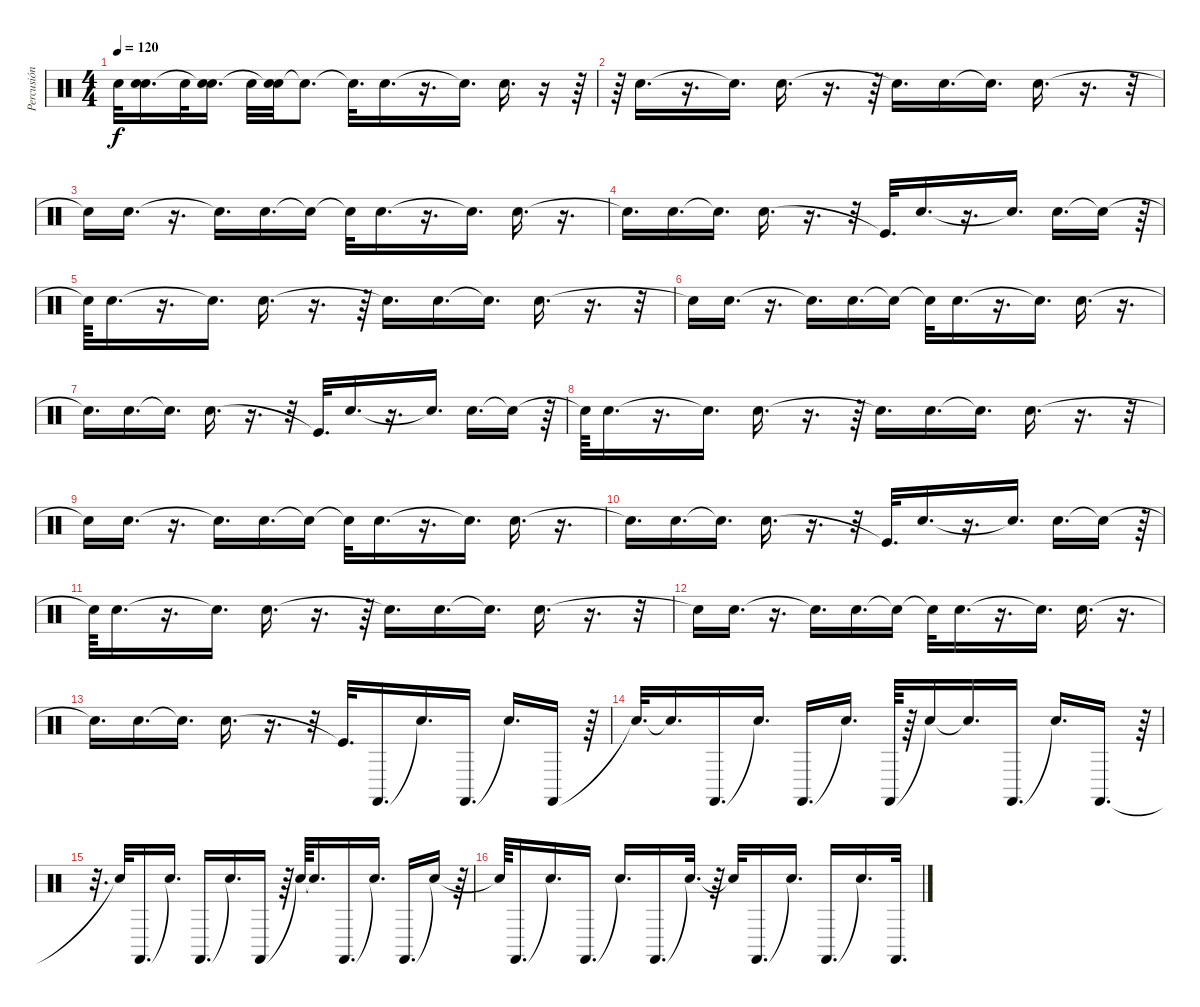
\track ("Percusión" "Percusión") {instrument percussion}
\staff {score}
\articulation defaults
\ts (4 4)
\tempo 120
\clef neutral
\ks c "Electric Snare (hit)".32{dy f}
("Electric Snare (hit)" "Snare (hit)"{t}).16{d} "Electric Snare (hit)".32 ("Electric Snare (hit)" "Snare (hit)"{t}).16{d} "Electric Snare (hit)".32 ("Electric Snare (hit)" "Snare (hit)"{t}).32 "Snare (hit)"{t}.8{d} "Snare (hit)"{t}.32{d} "Electric Snare (hit)".16{d} r.16{d} "Snare (hit)"{t}.16{d} "Electric Snare (hit)".16{d} r.16 r.64 |
r.64 "Electric Snare (hit)".16{d} r.16{d} "Snare (hit)"{t}.16{d} "Electric Snare (hit)".16{d} r.16{d} r.64 "Snare (hit)"{t}.16{d} "Electric Snare (hit)".16{d} "Snare (hit)"{t}.16{d} "Electric Snare (hit)".16{d} r.16{d} r.32 |
"Snare (hit)"{t}.16 "Electric Snare (hit)".16{d} r.16{d} "Snare (hit)"{t}.16{d} "Electric Snare (hit)".16{d} "Snare (hit)"{t}.16 "Snare (hit)"{t}.32 "Electric Snare (hit)".16{d} r.16{d} "Snare (hit)"{t}.16{d} "Electric Snare (hit)".16{d} r.16{d} |
"Snare (hit)"{t}.16{d} "Electric Snare (hit)".16{d} "Snare (hit)"{t}.16{d} "Electric Snare (hit)".16{d} r.16{d} r.32 "Kick (hit)"{t}.32{d} "Electric Snare (hit)".16{d} r.16{d} "Snare (hit)"{t}.16{d} "Electric Snare (hit)".16{d} "Snare (hit)"{t}.16 r.64 |
"Snare (hit)"{t}.64 "Electric Snare (hit)".16{d} r.16{d} "Snare (hit)"{t}.16{d} "Electric Snare (hit)".16{d} r.16{d} r.64 "Snare (hit)"{t}.16{d} "Electric Snare (hit)".16{d} "Snare (hit)"{t}.16{d} "Electric Snare (hit)".16{d} r.16{d} r.32 |
"Snare (hit)"{t}.16 "Electric Snare (hit)".16{d} r.16{d} "Snare (hit)"{t}.16{d} "Electric Snare (hit)".16{d} "Snare (hit)"{t}.16 "Snare (hit)"{t}.32 "Electric Snare (hit)".16{d} r.16{d} "Snare (hit)"{t}.16{d} "Electric Snare (hit)".16{d} r.16{d} |
"Snare (hit)"{t}.16{d} "Electric Snare (hit)".16{d} "Snare (hit)"{t}.16{d} "Electric Snare (hit)".16{d} r.16{d} r.32 "Kick (hit)"{t}.32{d} "Electric Snare (hit)".16{d} r.16{d} "Snare (hit)"{t}.16{d} "Electric Snare (hit)".16{d} "Snare (hit)"{t}.16 r.64 |
"Snare (hit)"{t}.64 "Electric Snare (hit)".16{d} r.16{d} "Snare (hit)"{t}.16{d} "Electric Snare (hit)".16{d} r.16{d} r.64 "Snare (hit)"{t}.16{d} "Electric Snare (hit)".16{d} "Snare (hit)"{t}.16{d} "Electric Snare (hit)".16{d} r.16{d} r.32 |
"Snare (hit)"{t}.16 "Electric Snare (hit)".16{d} r.16{d} "Snare (hit)"{t}.16{d} "Electric Snare (hit)".16{d} "Snare (hit)"{t}.16 "Snare (hit)"{t}.32 "Electric Snare (hit)".16{d} r.16{d} "Snare (hit)"{t}.16{d} "Electric Snare (hit)".16{d} r.16{d} |
"Snare (hit)"{t}.16{d} "Electric Snare (hit)".16{d} "Snare (hit)"{t}.16{d} "Electric Snare (hit)".16{d} r.16{d} r.32 "Kick (hit)"{t}.32{d} "Electric Snare (hit)".16{d} r.16{d} "Snare (hit)"{t}.16{d} "Electric Snare (hit)".16{d} "Snare (hit)"{t}.16 r.64 |
"Snare (hit)"{t}.64 "Electric Snare (hit)".16{d} r.16{d} "Snare (hit)"{t}.16{d} "Electric Snare (hit)".16{d} r.16{d} r.64 "Snare (hit)"{t}.16{d} "Electric Snare (hit)".16{d} "Snare (hit)"{t}.16{d} "Electric Snare (hit)".16{d} r.16{d} r.32 |
"Snare (hit)"{t}.16 "Electric Snare (hit)".16{d} r.16{d} "Snare (hit)"{t}.16{d} "Electric Snare (hit)".16{d} "Snare (hit)"{t}.16 "Snare (hit)"{t}.32 "Electric Snare (hit)".16{d} r.16{d} "Snare (hit)"{t}.16{d} "Electric Snare (hit)".16{d} r.16{d} |
"Snare (hit)"{t}.16{d} "Electric Snare (hit)".16{d} "Snare (hit)"{t}.16{d} "Electric Snare (hit)".16{d} r.16{d} r.32 "Kick (hit)"{t}.32{d} "Castanets (hit)".16{d} "Snare (hit)"{t}.16{d} "Castanets (hit)".16{d} "Electric Snare (hit)"{t}.16{d} "Castanets (hit)".16 r.64 |
"Snare (hit)"{t}.32{d} "Electric Snare (hit)"{t}.16{d} "Castanets (hit)".16{d} "Snare (hit)"{t}.16{d} "Castanets (hit)".16{d} "Snare (hit)"{t}.16{d} "Castanets (hit)".64 r.64 "Snare (hit)"{t}.16 "Snare (hit)"{t}.16{d} "Castanets (hit)".16{d} "Snare (hit)"{t}.16{d} "Castanets (hit)".16{d} r.64 |
r.32{d} "Snare (hit)"{t}.32 "Castanets (hit)".16{d} "Electric Snare (hit)"{t}.16{d} "Castanets (hit)".16{d} "Snare (hit)"{t}.16{d} "Castanets (hit)".16 r.64 "Snare (hit)"{t}.64 "Snare (hit)"{t}.16{d} "Castanets (hit)".16{d} "Snare (hit)"{t}.16{d} "Castanets (hit)".16{d} "Electric Snare (hit)"{t}.16 r.64 |
"Snare (hit)"{t}.64 "Castanets (hit)".16{d} "Electric Snare (hit)"{t}.16{d} "Castanets (hit)".16{d} "Electric Snare (hit)"{t}.16{d} "Castanets (hit)".16{d} "Snare (hit)"{t}.32{d} r.64 "Snare (hit)"{t}.32 "Castanets (hit)".16{d} "Snare (hit)"{t}.16{d} "Castanets (hit)".16{d} "Electric Snare (hit)"{t}.16{d} "Castanets (hit)".32{d}
